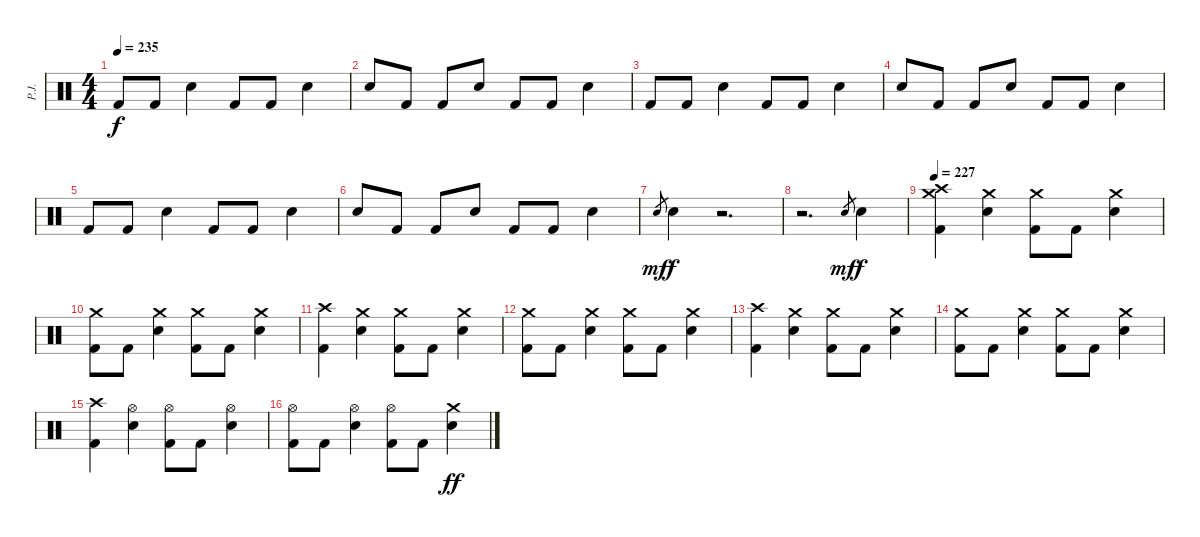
\track ("P.J." "P.J.") {instrument percussion}
\staff {score}
\articulation defaults
\ts (4 4)
\tempo 235
\clef neutral
\ks c "Kick (hit) 2".8{dy f} "Kick (hit) 2".8 "Electric Snare (hit)".4 "Kick (hit) 2".8 "Kick (hit) 2".8 "Electric Snare (hit)".4
|
"Electric Snare (hit)".8 "Kick (hit) 2".8 "Kick (hit) 2".8 "Electric Snare (hit)".8 "Kick (hit) 2".8 "Kick (hit) 2".8 "Electric Snare (hit)".4 |
"Kick (hit) 2".8 "Kick (hit) 2".8 "Electric Snare (hit)".4 "Kick (hit) 2".8 "Kick (hit) 2".8 "Electric Snare (hit)".4 |
"Electric Snare (hit)".8 "Kick (hit) 2".8 "Kick (hit) 2".8 "Electric Snare (hit)".8 "Kick (hit) 2".8 "Kick (hit) 2".8 "Electric Snare (hit)".4 |
"Kick (hit) 2".8 "Kick (hit) 2".8 "Electric Snare (hit)".4 "Kick (hit) 2".8 "Kick (hit) 2".8 "Electric Snare (hit)".4 |
"Electric Snare (hit)".8 "Kick (hit) 2".8 "Kick (hit) 2".8 "Electric Snare (hit)".8 "Kick (hit) 2".8 "Kick (hit) 2".8 "Electric Snare (hit)".4 |
"Electric Snare (hit)".8{gr dy mf} "Electric Snare (hit)".4{dy f} r.2{d} |
r.2{d} "Electric Snare (hit)".8{gr dy mf} "Electric Snare (hit)".4{dy f} |
\tempo 227
("Crash high (hit)" "Crash medium (hit)" "Kick (hit) 2").4 ("Crash medium (hit)" "Electric Snare (hit)").4 ("Crash medium (hit)" "Kick (hit) 2").8 "Kick (hit) 2".8 ("Crash medium (hit)" "Electric Snare (hit)").4 |
("Crash medium (hit)" "Kick (hit) 2").8 "Kick (hit) 2".8 ("Crash medium (hit)" "Electric Snare (hit)").4 ("Crash medium (hit)" "Kick (hit) 2").8 "Kick (hit) 2".8 ("Crash medium (hit)" "Electric Snare (hit)").4 |
("Crash high (hit)" "Kick (hit) 2").4 ("Crash medium (hit)" "Electric Snare (hit)").4 ("Crash medium (hit)" "Kick (hit) 2").8 "Kick (hit) 2".8 ("Crash medium (hit)" "Electric Snare (hit)").4 |
("Crash medium (hit)" "Kick (hit) 2").8 "Kick (hit) 2".8 ("Crash medium (hit)" "Electric Snare (hit)").4 ("Crash medium (hit)" "Kick (hit) 2").8 "Kick (hit) 2".8 ("Crash medium (hit)" "Electric Snare (hit)").4 |
("Crash high (hit)" "Kick (hit) 2").4 ("Crash medium (hit)" "Electric Snare (hit)").4 ("Crash medium (hit)" "Kick (hit) 2").8 "Kick (hit) 2".8 ("Crash medium (hit)" "Electric Snare (hit)").4 |
("Crash medium (hit)" "Kick (hit) 2").8 "Kick (hit) 2".8 ("Crash medium (hit)" "Electric Snare (hit)").4 ("Crash medium (hit)" "Kick (hit) 2").8 "Kick (hit) 2".8 ("Crash medium (hit)" "Electric Snare (hit)").4 |
("Crash high (hit)" "Kick (hit) 2").4 ("Hi-Hat (open)" "Electric Snare (hit)").4 ("Hi-Hat (open)" "Kick (hit) 2").8 "Kick (hit) 2".8 ("Hi-Hat (open)" "Electric Snare (hit)").4 |
("Hi-Hat (open)" "Kick (hit) 2").8 "Kick (hit) 2".8 ("Hi-Hat (open)" "Electric Snare (hit)").4 ("Hi-Hat (open)" "Kick (hit) 2").8 "Kick (hit) 2".8 ("Crash medium (hit)" "Electric Snare (hit)").4{dy ff}
